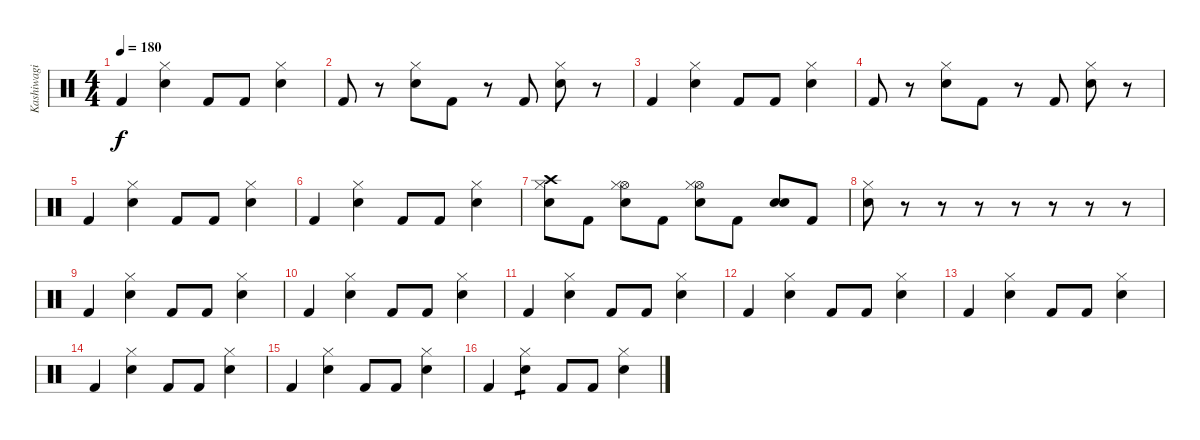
\track ("Kashiwagi Yuki" "Kashiwagi ") {instrument percussion}
\staff {score}
\articulation defaults
\ts (4 4)
\tempo 180
\clef neutral
\ks c "Kick (hit) 2".4{dy f}
("Hi-Hat (closed)" "Electric Snare (hit)").4 "Kick (hit) 2".8 "Kick (hit) 2".8 ("Hi-Hat (closed)" "Electric Snare (hit)").4 |
"Kick (hit) 2".8 r.8 ("Hi-Hat (closed)" "Electric Snare (hit)").8 "Kick (hit) 2".8 r.8 "Kick (hit) 2".8 ("Hi-Hat (closed)" "Electric Snare (hit)").8 r.8 |
"Kick (hit) 2".4 ("Hi-Hat (closed)" "Electric Snare (hit)").4 "Kick (hit) 2".8 "Kick (hit) 2".8 ("Hi-Hat (closed)" "Electric Snare (hit)").4 |
"Kick (hit) 2".8 r.8 ("Hi-Hat (closed)" "Electric Snare (hit)").8 "Kick (hit) 2".8 r.8 "Kick (hit) 2".8 ("Hi-Hat (closed)" "Electric Snare (hit)").8 r.8 |
"Kick (hit) 2".4 ("Hi-Hat (closed)" "Electric Snare (hit)").4 "Kick (hit) 2".8 "Kick (hit) 2".8 ("Hi-Hat (closed)" "Electric Snare (hit)").4 |
"Kick (hit) 2".4 ("Hi-Hat (closed)" "Electric Snare (hit)").4 "Kick (hit) 2".8 "Kick (hit) 2".8 ("Hi-Hat (closed)" "Electric Snare (hit)").4 |
("Crash high (hit)" "Hi-Hat (closed)" "Electric Snare (hit)").8 "Kick (hit) 2".8 ("Hi-Hat (open)" "Hi-Hat (closed)" "Electric Snare (hit)").8 "Kick (hit) 2".8 ("Hi-Hat (open)" "Hi-Hat (closed)" "Electric Snare (hit)").8 "Kick (hit) 2".8 ("Electric Snare (hit)" "Electric Snare (hit)").8 "Kick (hit) 2".8 |
("Hi-Hat (closed)" "Electric Snare (hit)").8 r.8 r.8 r.8 r.8 r.8 r.8 r.8 |
"Kick (hit) 2".4 ("Hi-Hat (closed)" "Electric Snare (hit)").4 "Kick (hit) 2".8 "Kick (hit) 2".8 ("Hi-Hat (closed)" "Electric Snare (hit)").4 |
"Kick (hit) 2".4 ("Hi-Hat (closed)" "Electric Snare (hit)").4 "Kick (hit) 2".8 "Kick (hit) 2".8 ("Hi-Hat (closed)" "Electric Snare (hit)").4 |
"Kick (hit) 2".4 ("Hi-Hat (closed)" "Electric Snare (hit)").4 "Kick (hit) 2".8 "Kick (hit) 2".8 ("Hi-Hat (closed)" "Electric Snare (hit)").4 |
"Kick (hit) 2".4 ("Hi-Hat (closed)" "Electric Snare (hit)").4 "Kick (hit) 2".8 "Kick (hit) 2".8 ("Hi-Hat (closed)" "Electric Snare (hit)").4 |
"Kick (hit) 2".4 ("Hi-Hat (closed)" "Electric Snare (hit)").4 "Kick (hit) 2".8 "Kick (hit) 2".8 ("Hi-Hat (closed)" "Electric Snare (hit)").4 |
"Kick (hit) 2".4 ("Hi-Hat (closed)" "Electric Snare (hit)").4 "Kick (hit) 2".8 "Kick (hit) 2".8 ("Hi-Hat (closed)" "Electric Snare (hit)").4 |
"Kick (hit) 2".4 ("Hi-Hat (closed)" "Electric Snare (hit)").4 "Kick (hit) 2".8 "Kick (hit) 2".8 ("Hi-Hat (closed)" "Electric Snare (hit)").4 |
"Kick (hit) 2".4 ("Hi-Hat (closed)" "Electric Snare (hit)").4{tp 1} "Kick (hit) 2".8 "Kick (hit) 2".8 ("Hi-Hat (closed)" "Electric Snare (hit)").4
